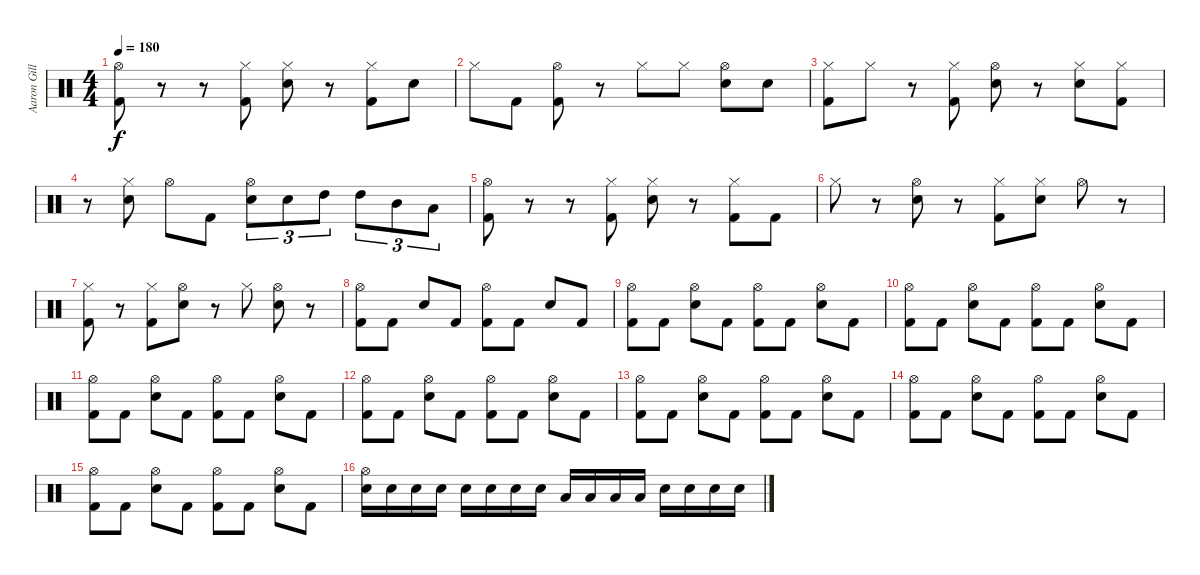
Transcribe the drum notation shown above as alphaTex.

\track ("Aaron Gillespie 1" "Aaron Gill") {instrument percussion}
\staff {score}
\articulation defaults
\ts (4 4)
\tempo 180
\clef neutral
\ks c
("Hi-Hat (open)" "Kick (hit) 2").8{dy f} r.8 r.8 ("Hi-Hat (closed)" "Kick (hit) 2").8 ("Hi-Hat (closed)" "Snare (hit) 2").8 r.8 ("Hi-Hat (closed)" "Kick (hit) 2").8 "Snare (hit) 2".8 |
"Hi-Hat (closed)".8 "Kick (hit) 2".8 ("Hi-Hat (open)" "Kick (hit) 2").8 r.8 "Hi-Hat (closed)".8 "Hi-Hat (closed)".8 ("Hi-Hat (open)" "Snare (hit) 2").8 "Snare (hit) 2".8 |
("Hi-Hat (closed)" "Kick (hit) 2").8 "Hi-Hat (closed)".8 r.8 ("Hi-Hat (closed)" "Kick (hit) 2").8 ("Hi-Hat (open)" "Snare (hit) 2").8 r.8 ("Hi-Hat (closed)" "Snare (hit) 2").8 ("Hi-Hat (closed)" "Kick (hit) 2").8 |
r.8 ("Hi-Hat (closed)" "Snare (hit) 2").8 "Hi-Hat (open)".8 "Kick (hit) 2".8 ("Hi-Hat (open)" "Snare (hit) 2").8{tu (3 2)} "Snare (hit) 2".8{tu (3 2)} "High Tom (hit)".8{tu (3 2)} "High Tom (hit)".8{tu (3 2)} "Mid Tom (hit)".8{tu (3 2)} "Low Tom (hit)".8{tu (3 2)} |
("Hi-Hat (open)" "Kick (hit) 2").8 r.8 r.8 ("Hi-Hat (closed)" "Kick (hit) 2").8 ("Hi-Hat (closed)" "Snare (hit) 2").8 r.8 ("Hi-Hat (closed)" "Kick (hit) 2").8 "Kick (hit) 2".8 |
"Hi-Hat (closed)".8 r.8 ("Hi-Hat (open)" "Snare (hit) 2").8 r.8 ("Hi-Hat (closed)" "Kick (hit) 2").8 ("Hi-Hat (closed)" "Snare (hit) 2").8 "Hi-Hat (open)".8 r.8 |
("Hi-Hat (closed)" "Kick (hit) 2").8 r.8 ("Hi-Hat (closed)" "Kick (hit) 2").8 ("Hi-Hat (open)" "Snare (hit) 2").8 r.8 "Hi-Hat (closed)".8 ("Hi-Hat (open)" "Snare (hit) 2").8 r.8 |
("Hi-Hat (open)" "Kick (hit) 2").8 "Kick (hit) 2".8 "Snare (hit) 2".8 "Kick (hit) 2".8 ("Hi-Hat (open)" "Kick (hit) 2").8 "Kick (hit) 2".8 "Snare (hit) 2".8 "Kick (hit) 2".8 |
("Hi-Hat (open)" "Kick (hit) 2").8 "Kick (hit) 2".8 ("Hi-Hat (open)" "Snare (hit) 2").8 "Kick (hit) 2".8 ("Hi-Hat (open)" "Kick (hit) 2").8 "Kick (hit) 2".8 ("Hi-Hat (open)" "Snare (hit) 2").8 "Kick (hit) 2".8 |
("Hi-Hat (open)" "Kick (hit) 2").8 "Kick (hit) 2".8 ("Hi-Hat (open)" "Snare (hit) 2").8 "Kick (hit) 2".8 ("Hi-Hat (open)" "Kick (hit) 2").8 "Kick (hit) 2".8 ("Hi-Hat (open)" "Snare (hit) 2").8 "Kick (hit) 2".8 |
("Hi-Hat (open)" "Kick (hit) 2").8 "Kick (hit) 2".8 ("Hi-Hat (open)" "Snare (hit) 2").8 "Kick (hit) 2".8 ("Hi-Hat (open)" "Kick (hit) 2").8 "Kick (hit) 2".8 ("Hi-Hat (open)" "Snare (hit) 2").8 "Kick (hit) 2".8 |
("Hi-Hat (open)" "Kick (hit) 2").8 "Kick (hit) 2".8 ("Hi-Hat (open)" "Snare (hit) 2").8 "Kick (hit) 2".8 ("Hi-Hat (open)" "Kick (hit) 2").8 "Kick (hit) 2".8 ("Hi-Hat (open)" "Snare (hit) 2").8 "Kick (hit) 2".8 |
("Hi-Hat (open)" "Kick (hit) 2").8 "Kick (hit) 2".8 ("Hi-Hat (open)" "Snare (hit) 2").8 "Kick (hit) 2".8 ("Hi-Hat (open)" "Kick (hit) 2").8 "Kick (hit) 2".8 ("Hi-Hat (open)" "Snare (hit) 2").8 "Kick (hit) 2".8 |
("Hi-Hat (open)" "Kick (hit) 2").8 "Kick (hit) 2".8 ("Hi-Hat (open)" "Snare (hit) 2").8 "Kick (hit) 2".8 ("Hi-Hat (open)" "Kick (hit) 2").8 "Kick (hit) 2".8 ("Hi-Hat (open)" "Snare (hit) 2").8 "Kick (hit) 2".8 |
("Hi-Hat (open)" "Kick (hit) 2").8 "Kick (hit) 2".8 ("Hi-Hat (open)" "Snare (hit) 2").8 "Kick (hit) 2".8 ("Hi-Hat (open)" "Kick (hit) 2").8 "Kick (hit) 2".8 ("Hi-Hat (open)" "Snare (hit) 2").8 "Kick (hit) 2".8 |
("Hi-Hat (open)" "Snare (hit) 2").16 "Snare (hit) 2".16 "Snare (hit) 2".16 "Snare (hit) 2".16 "Snare (hit) 2".16 "Snare (hit) 2".16 "Snare (hit) 2".16 "Snare (hit) 2".16 "Low Tom (hit)".16 "Low Tom (hit)".16 "Low Tom (hit)".16 "Low Tom (hit)".16 "Snare (hit) 2".16 "Snare (hit) 2".16 "Snare (hit) 2".16 "Snare (hit) 2".16
